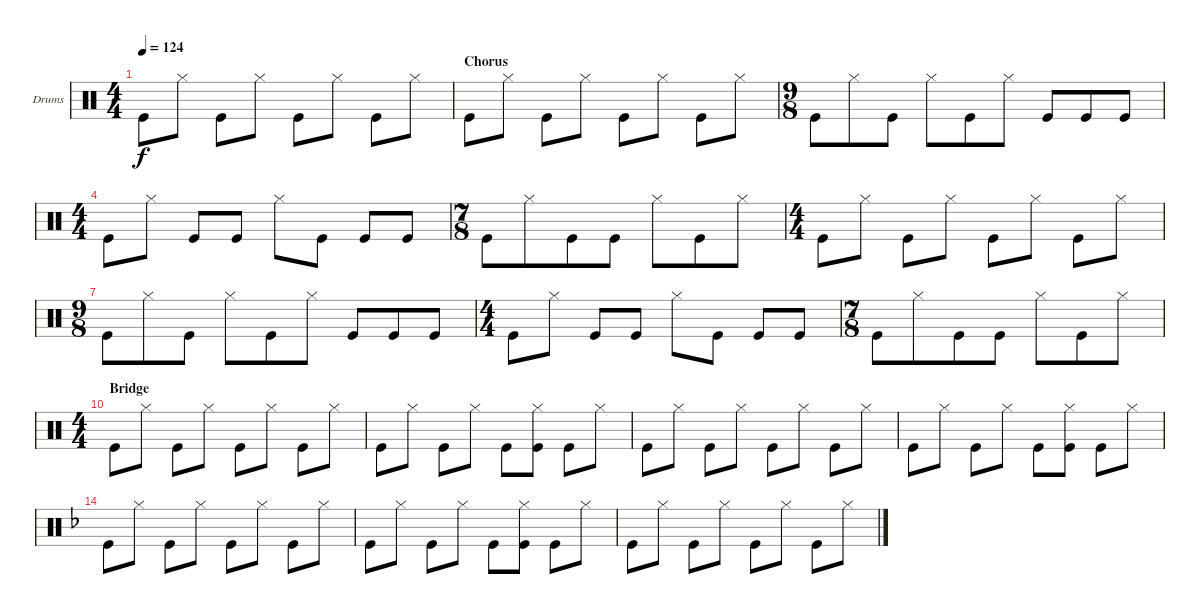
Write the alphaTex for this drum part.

\bracketExtendMode nobrackets
\firstSystemTrackNameOrientation horizontal
\otherSystemsTrackNameOrientation horizontal
\defaultBarNumberDisplay FirstOfSystem
\track ("Drumkit" "Drums") {instrument percussion}
\staff {score}
\articulation defaults
\ts (4 4)
\tempo 124
\clef neutral
\ks c "Kick (hit)".8{dy f} "Hi-Hat (closed)".8 "Kick (hit)".8 "Hi-Hat (closed)".8 "Kick (hit)".8 "Hi-Hat (closed)".8 "Kick (hit)".8 "Hi-Hat (closed)".8
|
\section ("" "Chorus")
"Kick (hit)".8 "Hi-Hat (closed)".8 "Kick (hit)".8 "Hi-Hat (closed)".8 "Kick (hit)".8 "Hi-Hat (closed)".8 "Kick (hit)".8 "Hi-Hat (closed)".8 |
\ts (9 8)
"Kick (hit)".8 "Hi-Hat (closed)".8 "Kick (hit)".8 "Hi-Hat (closed)".8 "Kick (hit)".8 "Hi-Hat (closed)".8 "Kick (hit)".8 "Kick (hit)".8 "Kick (hit)".8 |
\ts (4 4)
"Kick (hit)".8 "Hi-Hat (closed)".8 "Kick (hit)".8 "Kick (hit)".8 "Hi-Hat (closed)".8 "Kick (hit)".8 "Kick (hit)".8 "Kick (hit)".8 |
\ts (7 8)
"Kick (hit)".8 "Hi-Hat (closed)".8 "Kick (hit)".8 "Kick (hit)".8 "Hi-Hat (closed)".8 "Kick (hit)".8 "Hi-Hat (closed)".8 |
\ts (4 4)
"Kick (hit)".8 "Hi-Hat (closed)".8 "Kick (hit)".8 "Hi-Hat (closed)".8 "Kick (hit)".8 "Hi-Hat (closed)".8 "Kick (hit)".8 "Hi-Hat (closed)".8 |
\ts (9 8)
"Kick (hit)".8 "Hi-Hat (closed)".8 "Kick (hit)".8 "Hi-Hat (closed)".8 "Kick (hit)".8 "Hi-Hat (closed)".8 "Kick (hit)".8 "Kick (hit)".8 "Kick (hit)".8 |
\ts (4 4)
"Kick (hit)".8 "Hi-Hat (closed)".8 "Kick (hit)".8 "Kick (hit)".8 "Hi-Hat (closed)".8 "Kick (hit)".8 "Kick (hit)".8 "Kick (hit)".8 |
\ts (7 8)
"Kick (hit)".8 "Hi-Hat (closed)".8 "Kick (hit)".8 "Kick (hit)".8 "Hi-Hat (closed)".8 "Kick (hit)".8 "Hi-Hat (closed)".8 |
\ts (4 4)
\section ("" "Bridge")
"Kick (hit)".8 "Hi-Hat (closed)".8 "Kick (hit)".8 "Hi-Hat (closed)".8 "Kick (hit)".8 "Hi-Hat (closed)".8 "Kick (hit)".8 "Hi-Hat (closed)".8 |
"Kick (hit)".8 "Hi-Hat (closed)".8 "Kick (hit)".8 "Hi-Hat (closed)".8 "Kick (hit)".8 ("Hi-Hat (closed)" "Kick (hit)").8 "Kick (hit)".8 "Hi-Hat (closed)".8 |
"Kick (hit)".8 "Hi-Hat (closed)".8 "Kick (hit)".8 "Hi-Hat (closed)".8 "Kick (hit)".8 "Hi-Hat (closed)".8 "Kick (hit)".8 "Hi-Hat (closed)".8 |
"Kick (hit)".8 "Hi-Hat (closed)".8 "Kick (hit)".8 "Hi-Hat (closed)".8 "Kick (hit)".8 ("Hi-Hat (closed)" "Kick (hit)").8 "Kick (hit)".8 "Hi-Hat (closed)".8 |
\ks f "Kick (hit)".8 "Hi-Hat (closed)".8 "Kick (hit)".8 "Hi-Hat (closed)".8 "Kick (hit)".8 "Hi-Hat (closed)".8 "Kick (hit)".8 "Hi-Hat (closed)".8
|
"Kick (hit)".8 "Hi-Hat (closed)".8 "Kick (hit)".8 "Hi-Hat (closed)".8 "Kick (hit)".8 ("Hi-Hat (closed)" "Kick (hit)").8 "Kick (hit)".8 "Hi-Hat (closed)".8 |
"Kick (hit)".8 "Hi-Hat (closed)".8 "Kick (hit)".8 "Hi-Hat (closed)".8 "Kick (hit)".8 "Hi-Hat (closed)".8 "Kick (hit)".8 "Hi-Hat (closed)".8
